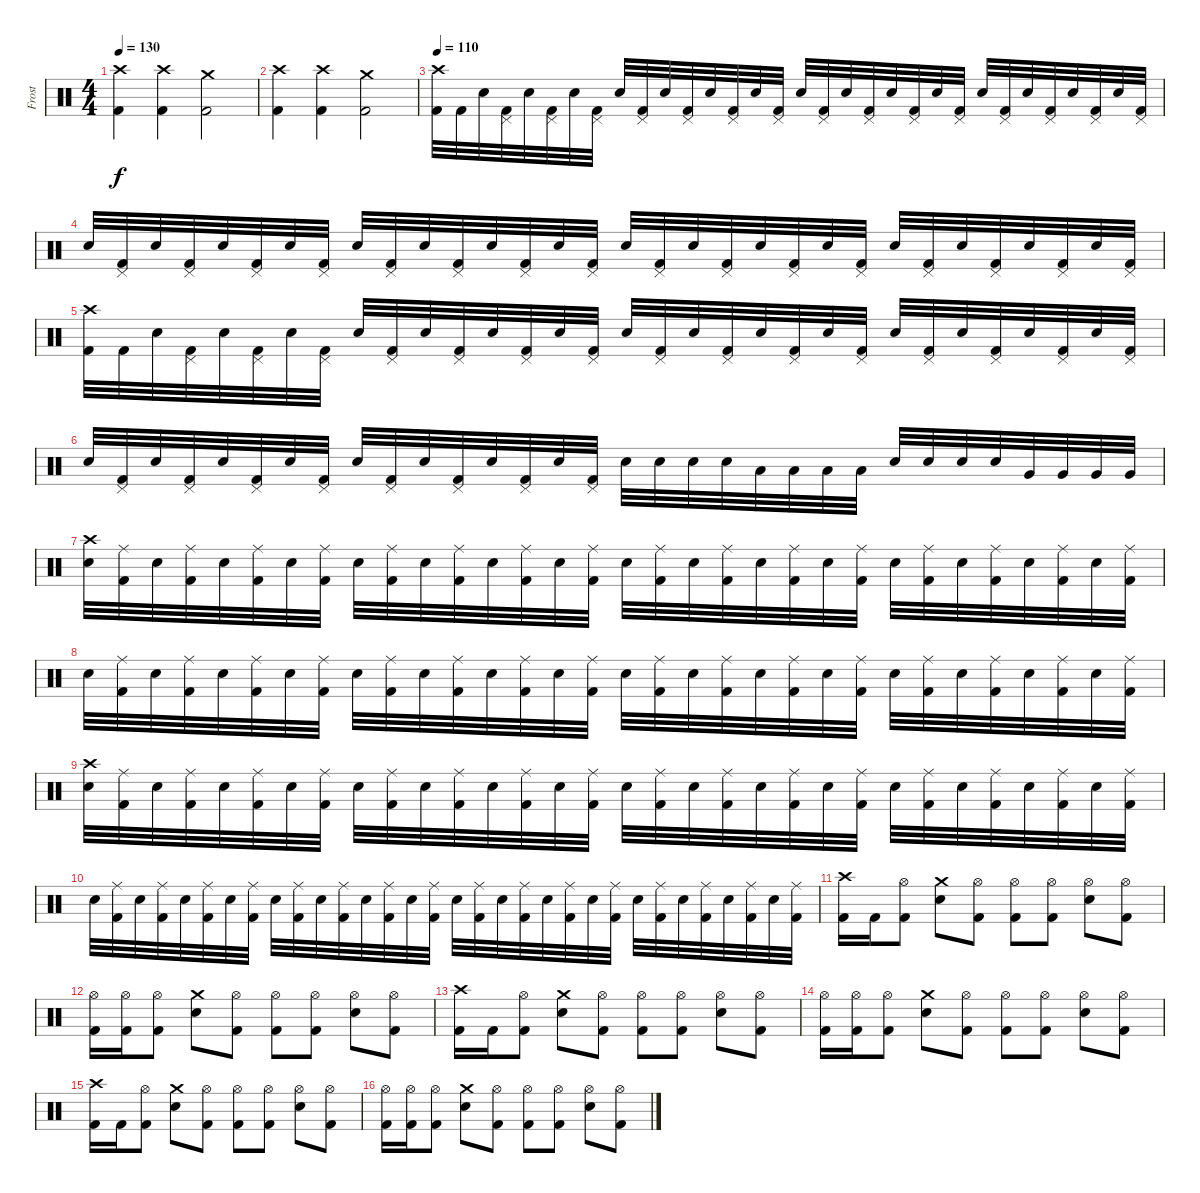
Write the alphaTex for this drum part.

\track ("Frost" "Frost") {instrument percussion}
\staff {score}
\articulation defaults
\ts (4 4)
\tempo 130
\clef neutral
\ks c
("Crash high (hit)" "Kick (hit) 2").4{dy f} ("Crash high (hit)" "Kick (hit) 2").4 ("Crash medium (hit)" "Kick (hit) 2").2 |
("Crash high (hit)" "Kick (hit) 2").4 ("Crash high (hit)" "Kick (hit) 2").4 ("Crash medium (hit)" "Kick (hit) 2").2 |
\tempo 110
("Crash high (hit)" "Kick (hit) 2").32 "Kick (hit) 2".32 "Snare (hit) 2".32 ("Pedal Hi-Hat (hit)" "Kick (hit) 2").32 "Snare (hit) 2".32 ("Pedal Hi-Hat (hit)" "Kick (hit) 2").32 "Snare (hit) 2".32 ("Pedal Hi-Hat (hit)" "Kick (hit) 2").32 "Snare (hit) 2".32 ("Pedal Hi-Hat (hit)" "Kick (hit) 2").32 "Snare (hit) 2".32 ("Pedal Hi-Hat (hit)" "Kick (hit) 2").32 "Snare (hit) 2".32 ("Pedal Hi-Hat (hit)" "Kick (hit) 2").32 "Snare (hit) 2".32 ("Pedal Hi-Hat (hit)" "Kick (hit) 2").32 "Snare (hit) 2".32 ("Pedal Hi-Hat (hit)" "Kick (hit) 2").32 "Snare (hit) 2".32 ("Pedal Hi-Hat (hit)" "Kick (hit) 2").32 "Snare (hit) 2".32 ("Pedal Hi-Hat (hit)" "Kick (hit) 2").32 "Snare (hit) 2".32 ("Pedal Hi-Hat (hit)" "Kick (hit) 2").32 "Snare (hit) 2".32 ("Pedal Hi-Hat (hit)" "Kick (hit) 2").32 "Snare (hit) 2".32 ("Pedal Hi-Hat (hit)" "Kick (hit) 2").32 "Snare (hit) 2".32 ("Pedal Hi-Hat (hit)" "Kick (hit) 2").32 "Snare (hit) 2".32 ("Pedal Hi-Hat (hit)" "Kick (hit) 2").32 |
"Snare (hit) 2".32 ("Pedal Hi-Hat (hit)" "Kick (hit) 2").32 "Snare (hit) 2".32 ("Pedal Hi-Hat (hit)" "Kick (hit) 2").32 "Snare (hit) 2".32 ("Pedal Hi-Hat (hit)" "Kick (hit) 2").32 "Snare (hit) 2".32 ("Pedal Hi-Hat (hit)" "Kick (hit) 2").32 "Snare (hit) 2".32 ("Pedal Hi-Hat (hit)" "Kick (hit) 2").32 "Snare (hit) 2".32 ("Pedal Hi-Hat (hit)" "Kick (hit) 2").32 "Snare (hit) 2".32 ("Pedal Hi-Hat (hit)" "Kick (hit) 2").32 "Snare (hit) 2".32 ("Pedal Hi-Hat (hit)" "Kick (hit) 2").32 "Snare (hit) 2".32 ("Pedal Hi-Hat (hit)" "Kick (hit) 2").32 "Snare (hit) 2".32 ("Pedal Hi-Hat (hit)" "Kick (hit) 2").32 "Snare (hit) 2".32 ("Pedal Hi-Hat (hit)" "Kick (hit) 2").32 "Snare (hit) 2".32 ("Pedal Hi-Hat (hit)" "Kick (hit) 2").32 "Snare (hit) 2".32 ("Pedal Hi-Hat (hit)" "Kick (hit) 2").32 "Snare (hit) 2".32 ("Pedal Hi-Hat (hit)" "Kick (hit) 2").32 "Snare (hit) 2".32 ("Pedal Hi-Hat (hit)" "Kick (hit) 2").32 "Snare (hit) 2".32 ("Pedal Hi-Hat (hit)" "Kick (hit) 2").32 |
("Crash high (hit)" "Kick (hit) 2").32 "Kick (hit) 2".32 "Snare (hit) 2".32 ("Pedal Hi-Hat (hit)" "Kick (hit) 2").32 "Snare (hit) 2".32 ("Pedal Hi-Hat (hit)" "Kick (hit) 2").32 "Snare (hit) 2".32 ("Pedal Hi-Hat (hit)" "Kick (hit) 2").32 "Snare (hit) 2".32 ("Pedal Hi-Hat (hit)" "Kick (hit) 2").32 "Snare (hit) 2".32 ("Pedal Hi-Hat (hit)" "Kick (hit) 2").32 "Snare (hit) 2".32 ("Pedal Hi-Hat (hit)" "Kick (hit) 2").32 "Snare (hit) 2".32 ("Pedal Hi-Hat (hit)" "Kick (hit) 2").32 "Snare (hit) 2".32 ("Pedal Hi-Hat (hit)" "Kick (hit) 2").32 "Snare (hit) 2".32 ("Pedal Hi-Hat (hit)" "Kick (hit) 2").32 "Snare (hit) 2".32 ("Pedal Hi-Hat (hit)" "Kick (hit) 2").32 "Snare (hit) 2".32 ("Pedal Hi-Hat (hit)" "Kick (hit) 2").32 "Snare (hit) 2".32 ("Pedal Hi-Hat (hit)" "Kick (hit) 2").32 "Snare (hit) 2".32 ("Pedal Hi-Hat (hit)" "Kick (hit) 2").32 "Snare (hit) 2".32 ("Pedal Hi-Hat (hit)" "Kick (hit) 2").32 "Snare (hit) 2".32 ("Pedal Hi-Hat (hit)" "Kick (hit) 2").32 |
"Snare (hit) 2".32 ("Pedal Hi-Hat (hit)" "Kick (hit) 2").32 "Snare (hit) 2".32 ("Pedal Hi-Hat (hit)" "Kick (hit) 2").32 "Snare (hit) 2".32 ("Pedal Hi-Hat (hit)" "Kick (hit) 2").32 "Snare (hit) 2".32 ("Pedal Hi-Hat (hit)" "Kick (hit) 2").32 "Snare (hit) 2".32 ("Pedal Hi-Hat (hit)" "Kick (hit) 2").32 "Snare (hit) 2".32 ("Pedal Hi-Hat (hit)" "Kick (hit) 2").32 "Snare (hit) 2".32 ("Pedal Hi-Hat (hit)" "Kick (hit) 2").32 "Snare (hit) 2".32 ("Pedal Hi-Hat (hit)" "Kick (hit) 2").32 "Snare (hit) 2".32 "Snare (hit) 2".32 "Snare (hit) 2".32 "Snare (hit) 2".32 "Low Tom (hit)".32 "Low Tom (hit)".32 "Low Tom (hit)".32 "Low Tom (hit)".32 "Snare (hit) 2".32 "Snare (hit) 2".32 "Snare (hit) 2".32 "Snare (hit) 2".32 "Very Low Tom (hit)".32 "Very Low Tom (hit)".32 "Very Low Tom (hit)".32 "Very Low Tom (hit)".32 |
("Crash high (hit)" "Snare (hit) 2").32 ("Ride (middle)" "Kick (hit) 2").32 "Snare (hit) 2".32 ("Ride (middle)" "Kick (hit) 2").32 "Snare (hit) 2".32 ("Ride (middle)" "Kick (hit) 2").32 "Snare (hit) 2".32 ("Ride (middle)" "Kick (hit) 2").32 "Snare (hit) 2".32 ("Ride (middle)" "Kick (hit) 2").32 "Snare (hit) 2".32 ("Ride (middle)" "Kick (hit) 2").32 "Snare (hit) 2".32 ("Ride (middle)" "Kick (hit) 2").32 "Snare (hit) 2".32 ("Ride (middle)" "Kick (hit) 2").32 "Snare (hit) 2".32 ("Ride (middle)" "Kick (hit) 2").32 "Snare (hit) 2".32 ("Ride (middle)" "Kick (hit) 2").32 "Snare (hit) 2".32 ("Ride (middle)" "Kick (hit) 2").32 "Snare (hit) 2".32 ("Ride (middle)" "Kick (hit) 2").32 "Snare (hit) 2".32 ("Ride (middle)" "Kick (hit) 2").32 "Snare (hit) 2".32 ("Ride (middle)" "Kick (hit) 2").32 "Snare (hit) 2".32 ("Ride (middle)" "Kick (hit) 2").32 "Snare (hit) 2".32 ("Ride (middle)" "Kick (hit) 2").32 |
"Snare (hit) 2".32 ("Ride (middle)" "Kick (hit) 2").32 "Snare (hit) 2".32 ("Ride (middle)" "Kick (hit) 2").32 "Snare (hit) 2".32 ("Ride (middle)" "Kick (hit) 2").32 "Snare (hit) 2".32 ("Ride (middle)" "Kick (hit) 2").32 "Snare (hit) 2".32 ("Ride (middle)" "Kick (hit) 2").32 "Snare (hit) 2".32 ("Ride (middle)" "Kick (hit) 2").32 "Snare (hit) 2".32 ("Ride (middle)" "Kick (hit) 2").32 "Snare (hit) 2".32 ("Ride (middle)" "Kick (hit) 2").32 "Snare (hit) 2".32 ("Ride (middle)" "Kick (hit) 2").32 "Snare (hit) 2".32 ("Ride (middle)" "Kick (hit) 2").32 "Snare (hit) 2".32 ("Ride (middle)" "Kick (hit) 2").32 "Snare (hit) 2".32 ("Ride (middle)" "Kick (hit) 2").32 "Snare (hit) 2".32 ("Ride (middle)" "Kick (hit) 2").32 "Snare (hit) 2".32 ("Ride (middle)" "Kick (hit) 2").32 "Snare (hit) 2".32 ("Ride (middle)" "Kick (hit) 2").32 "Snare (hit) 2".32 ("Ride (middle)" "Kick (hit) 2").32 |
("Crash high (hit)" "Snare (hit) 2").32 ("Ride (middle)" "Kick (hit) 2").32 "Snare (hit) 2".32 ("Ride (middle)" "Kick (hit) 2").32 "Snare (hit) 2".32 ("Ride (middle)" "Kick (hit) 2").32 "Snare (hit) 2".32 ("Ride (middle)" "Kick (hit) 2").32 "Snare (hit) 2".32 ("Ride (middle)" "Kick (hit) 2").32 "Snare (hit) 2".32 ("Ride (middle)" "Kick (hit) 2").32 "Snare (hit) 2".32 ("Ride (middle)" "Kick (hit) 2").32 "Snare (hit) 2".32 ("Ride (middle)" "Kick (hit) 2").32 "Snare (hit) 2".32 ("Ride (middle)" "Kick (hit) 2").32 "Snare (hit) 2".32 ("Ride (middle)" "Kick (hit) 2").32 "Snare (hit) 2".32 ("Ride (middle)" "Kick (hit) 2").32 "Snare (hit) 2".32 ("Ride (middle)" "Kick (hit) 2").32 "Snare (hit) 2".32 ("Ride (middle)" "Kick (hit) 2").32 "Snare (hit) 2".32 ("Ride (middle)" "Kick (hit) 2").32 "Snare (hit) 2".32 ("Ride (middle)" "Kick (hit) 2").32 "Snare (hit) 2".32 ("Ride (middle)" "Kick (hit) 2").32 |
"Snare (hit) 2".32 ("Ride (middle)" "Kick (hit) 2").32 "Snare (hit) 2".32 ("Ride (middle)" "Kick (hit) 2").32 "Snare (hit) 2".32 ("Ride (middle)" "Kick (hit) 2").32 "Snare (hit) 2".32 ("Ride (middle)" "Kick (hit) 2").32 "Snare (hit) 2".32 ("Ride (middle)" "Kick (hit) 2").32 "Snare (hit) 2".32 ("Ride (middle)" "Kick (hit) 2").32 "Snare (hit) 2".32 ("Ride (middle)" "Kick (hit) 2").32 "Snare (hit) 2".32 ("Ride (middle)" "Kick (hit) 2").32 "Snare (hit) 2".32 ("Ride (middle)" "Kick (hit) 2").32 "Snare (hit) 2".32 ("Ride (middle)" "Kick (hit) 2").32 "Snare (hit) 2".32 ("Ride (middle)" "Kick (hit) 2").32 "Snare (hit) 2".32 ("Ride (middle)" "Kick (hit) 2").32 "Snare (hit) 2".32 ("Ride (middle)" "Kick (hit) 2").32 "Snare (hit) 2".32 ("Ride (middle)" "Kick (hit) 2").32 "Snare (hit) 2".32 ("Ride (middle)" "Kick (hit) 2").32 "Snare (hit) 2".32 ("Ride (middle)" "Kick (hit) 2").32 |
("Crash high (hit)" "Kick (hit) 2").16 "Kick (hit) 2".16 ("Hi-Hat (open)" "Kick (hit) 2").8 ("Crash medium (hit)" "Snare (hit) 2").8 ("Hi-Hat (open)" "Kick (hit) 2").8 ("Hi-Hat (open)" "Kick (hit) 2").8 ("Hi-Hat (open)" "Kick (hit) 2").8 ("Hi-Hat (open)" "Snare (hit) 2").8 ("Hi-Hat (open)" "Kick (hit) 2").8 |
("Hi-Hat (open)" "Kick (hit) 2").16 ("Hi-Hat (open)" "Kick (hit) 2").16 ("Hi-Hat (open)" "Kick (hit) 2").8 ("Crash medium (hit)" "Snare (hit) 2").8 ("Hi-Hat (open)" "Kick (hit) 2").8 ("Hi-Hat (open)" "Kick (hit) 2").8 ("Hi-Hat (open)" "Kick (hit) 2").8 ("Hi-Hat (open)" "Snare (hit) 2").8 ("Hi-Hat (open)" "Kick (hit) 2").8 |
("Crash high (hit)" "Kick (hit) 2").16 "Kick (hit) 2".16 ("Hi-Hat (open)" "Kick (hit) 2").8 ("Crash medium (hit)" "Snare (hit) 2").8 ("Hi-Hat (open)" "Kick (hit) 2").8 ("Hi-Hat (open)" "Kick (hit) 2").8 ("Hi-Hat (open)" "Kick (hit) 2").8 ("Hi-Hat (open)" "Snare (hit) 2").8 ("Hi-Hat (open)" "Kick (hit) 2").8 |
("Hi-Hat (open)" "Kick (hit) 2").16 ("Hi-Hat (open)" "Kick (hit) 2").16 ("Hi-Hat (open)" "Kick (hit) 2").8 ("Crash medium (hit)" "Snare (hit) 2").8 ("Hi-Hat (open)" "Kick (hit) 2").8 ("Hi-Hat (open)" "Kick (hit) 2").8 ("Hi-Hat (open)" "Kick (hit) 2").8 ("Hi-Hat (open)" "Snare (hit) 2").8 ("Hi-Hat (open)" "Kick (hit) 2").8 |
("Crash high (hit)" "Kick (hit) 2").16 "Kick (hit) 2".16 ("Hi-Hat (open)" "Kick (hit) 2").8 ("Crash medium (hit)" "Snare (hit) 2").8 ("Hi-Hat (open)" "Kick (hit) 2").8 ("Hi-Hat (open)" "Kick (hit) 2").8 ("Hi-Hat (open)" "Kick (hit) 2").8 ("Hi-Hat (open)" "Snare (hit) 2").8 ("Hi-Hat (open)" "Kick (hit) 2").8 |
("Hi-Hat (open)" "Kick (hit) 2").16 ("Hi-Hat (open)" "Kick (hit) 2").16 ("Hi-Hat (open)" "Kick (hit) 2").8 ("Crash medium (hit)" "Snare (hit) 2").8 ("Hi-Hat (open)" "Kick (hit) 2").8 ("Hi-Hat (open)" "Kick (hit) 2").8 ("Hi-Hat (open)" "Kick (hit) 2").8 ("Hi-Hat (open)" "Snare (hit) 2").8 ("Hi-Hat (open)" "Kick (hit) 2").8
